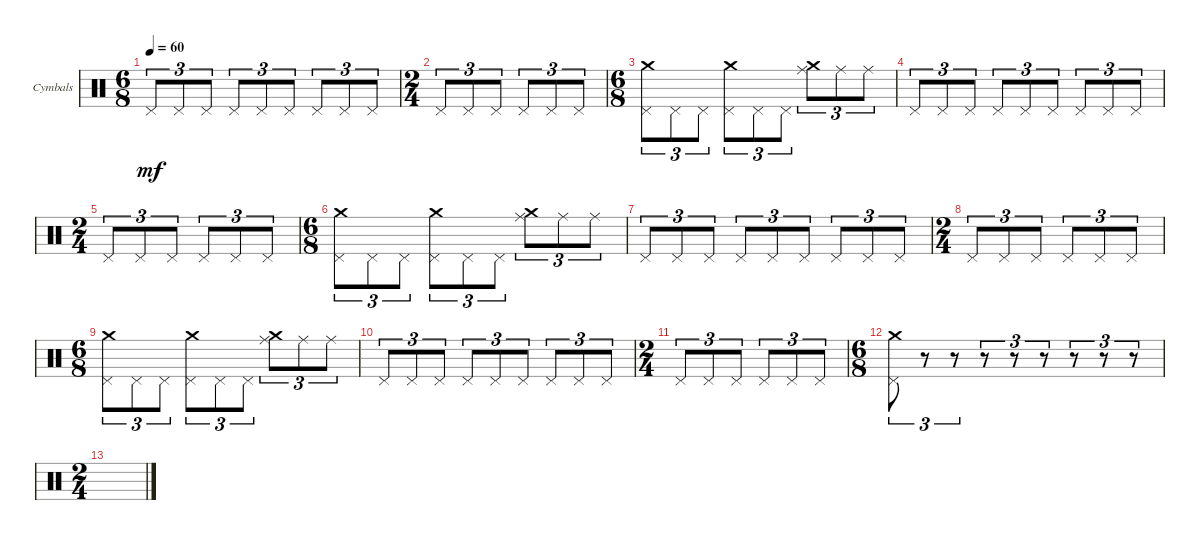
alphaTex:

\defaultSystemsLayout 4
\bracketExtendMode groupsimilarinstruments
\firstSystemTrackNameOrientation horizontal
\otherSystemsTrackNameOrientation horizontal
\track ("Cymbals" "Cymbals") {instrument percussion}
\staff {score}
\articulation defaults
\ts (6 8)
\tempo 60
\clef neutral
\ks c "Pedal Hi-Hat (hit)".8{tu (3 2) dy mf} "Pedal Hi-Hat (hit)".8{tu (3 2)} "Pedal Hi-Hat (hit)".8{tu (3 2)} "Pedal Hi-Hat (hit)".8{tu (3 2)} "Pedal Hi-Hat (hit)".8{tu (3 2)} "Pedal Hi-Hat (hit)".8{tu (3 2)} "Pedal Hi-Hat (hit)".8{tu (3 2)} "Pedal Hi-Hat (hit)".8{tu (3 2)} "Pedal Hi-Hat (hit)".8{tu (3 2)}
|
\ts (2 4)
"Pedal Hi-Hat (hit)".8{tu (3 2)} "Pedal Hi-Hat (hit)".8{tu (3 2)} "Pedal Hi-Hat (hit)".8{tu (3 2)} "Pedal Hi-Hat (hit)".8{tu (3 2)} "Pedal Hi-Hat (hit)".8{tu (3 2)} "Pedal Hi-Hat (hit)".8{tu (3 2)} |
\ts (6 8)
("Pedal Hi-Hat (hit)" "Crash medium (hit)").8{tu (3 2)} "Pedal Hi-Hat (hit)".8{tu (3 2)} "Pedal Hi-Hat (hit)".8{tu (3 2)} ("Pedal Hi-Hat (hit)" "Crash medium (hit)").8{tu (3 2)} "Pedal Hi-Hat (hit)".8{tu (3 2)} "Pedal Hi-Hat (hit)".8{tu (3 2)} ("Ride (middle)" "Crash medium (hit)").8{tu (3 2)} "Ride (middle)".8{tu (3 2)} "Ride (middle)".8{tu (3 2)} |
"Pedal Hi-Hat (hit)".8{tu (3 2)} "Pedal Hi-Hat (hit)".8{tu (3 2)} "Pedal Hi-Hat (hit)".8{tu (3 2)} "Pedal Hi-Hat (hit)".8{tu (3 2)} "Pedal Hi-Hat (hit)".8{tu (3 2)} "Pedal Hi-Hat (hit)".8{tu (3 2)} "Pedal Hi-Hat (hit)".8{tu (3 2)} "Pedal Hi-Hat (hit)".8{tu (3 2)} "Pedal Hi-Hat (hit)".8{tu (3 2)} |
\ts (2 4)
"Pedal Hi-Hat (hit)".8{tu (3 2)} "Pedal Hi-Hat (hit)".8{tu (3 2)} "Pedal Hi-Hat (hit)".8{tu (3 2)} "Pedal Hi-Hat (hit)".8{tu (3 2)} "Pedal Hi-Hat (hit)".8{tu (3 2)} "Pedal Hi-Hat (hit)".8{tu (3 2)} |
\ts (6 8)
("Pedal Hi-Hat (hit)" "Crash medium (hit)").8{tu (3 2)} "Pedal Hi-Hat (hit)".8{tu (3 2)} "Pedal Hi-Hat (hit)".8{tu (3 2)} ("Pedal Hi-Hat (hit)" "Crash medium (hit)").8{tu (3 2)} "Pedal Hi-Hat (hit)".8{tu (3 2)} "Pedal Hi-Hat (hit)".8{tu (3 2)} ("Ride (middle)" "Crash medium (hit)").8{tu (3 2)} "Ride (middle)".8{tu (3 2)} "Ride (middle)".8{tu (3 2)} |
"Pedal Hi-Hat (hit)".8{tu (3 2)} "Pedal Hi-Hat (hit)".8{tu (3 2)} "Pedal Hi-Hat (hit)".8{tu (3 2)} "Pedal Hi-Hat (hit)".8{tu (3 2)} "Pedal Hi-Hat (hit)".8{tu (3 2)} "Pedal Hi-Hat (hit)".8{tu (3 2)} "Pedal Hi-Hat (hit)".8{tu (3 2)} "Pedal Hi-Hat (hit)".8{tu (3 2)} "Pedal Hi-Hat (hit)".8{tu (3 2)} |
\ts (2 4)
"Pedal Hi-Hat (hit)".8{tu (3 2)} "Pedal Hi-Hat (hit)".8{tu (3 2)} "Pedal Hi-Hat (hit)".8{tu (3 2)} "Pedal Hi-Hat (hit)".8{tu (3 2)} "Pedal Hi-Hat (hit)".8{tu (3 2)} "Pedal Hi-Hat (hit)".8{tu (3 2)} |
\ts (6 8)
("Pedal Hi-Hat (hit)" "Crash medium (hit)").8{tu (3 2)} "Pedal Hi-Hat (hit)".8{tu (3 2)} "Pedal Hi-Hat (hit)".8{tu (3 2)} ("Pedal Hi-Hat (hit)" "Crash medium (hit)").8{tu (3 2)} "Pedal Hi-Hat (hit)".8{tu (3 2)} "Pedal Hi-Hat (hit)".8{tu (3 2)} ("Ride (middle)" "Crash medium (hit)").8{tu (3 2)} "Ride (middle)".8{tu (3 2)} "Ride (middle)".8{tu (3 2)} |
"Pedal Hi-Hat (hit)".8{tu (3 2)} "Pedal Hi-Hat (hit)".8{tu (3 2)} "Pedal Hi-Hat (hit)".8{tu (3 2)} "Pedal Hi-Hat (hit)".8{tu (3 2)} "Pedal Hi-Hat (hit)".8{tu (3 2)} "Pedal Hi-Hat (hit)".8{tu (3 2)} "Pedal Hi-Hat (hit)".8{tu (3 2)} "Pedal Hi-Hat (hit)".8{tu (3 2)} "Pedal Hi-Hat (hit)".8{tu (3 2)} |
\ts (2 4)
"Pedal Hi-Hat (hit)".8{tu (3 2)} "Pedal Hi-Hat (hit)".8{tu (3 2)} "Pedal Hi-Hat (hit)".8{tu (3 2)} "Pedal Hi-Hat (hit)".8{tu (3 2)} "Pedal Hi-Hat (hit)".8{tu (3 2)} "Pedal Hi-Hat (hit)".8{tu (3 2)} |
\ts (6 8)
("Pedal Hi-Hat (hit)" "Crash medium (hit)").8{tu (3 2)} r.8{tu (3 2)} r.8{tu (3 2)} r.8{tu (3 2)} r.8{tu (3 2)} r.8{tu (3 2)} r.8{tu (3 2)} r.8{tu (3 2)} r.8{tu (3 2)} |
\ts (2 4)
